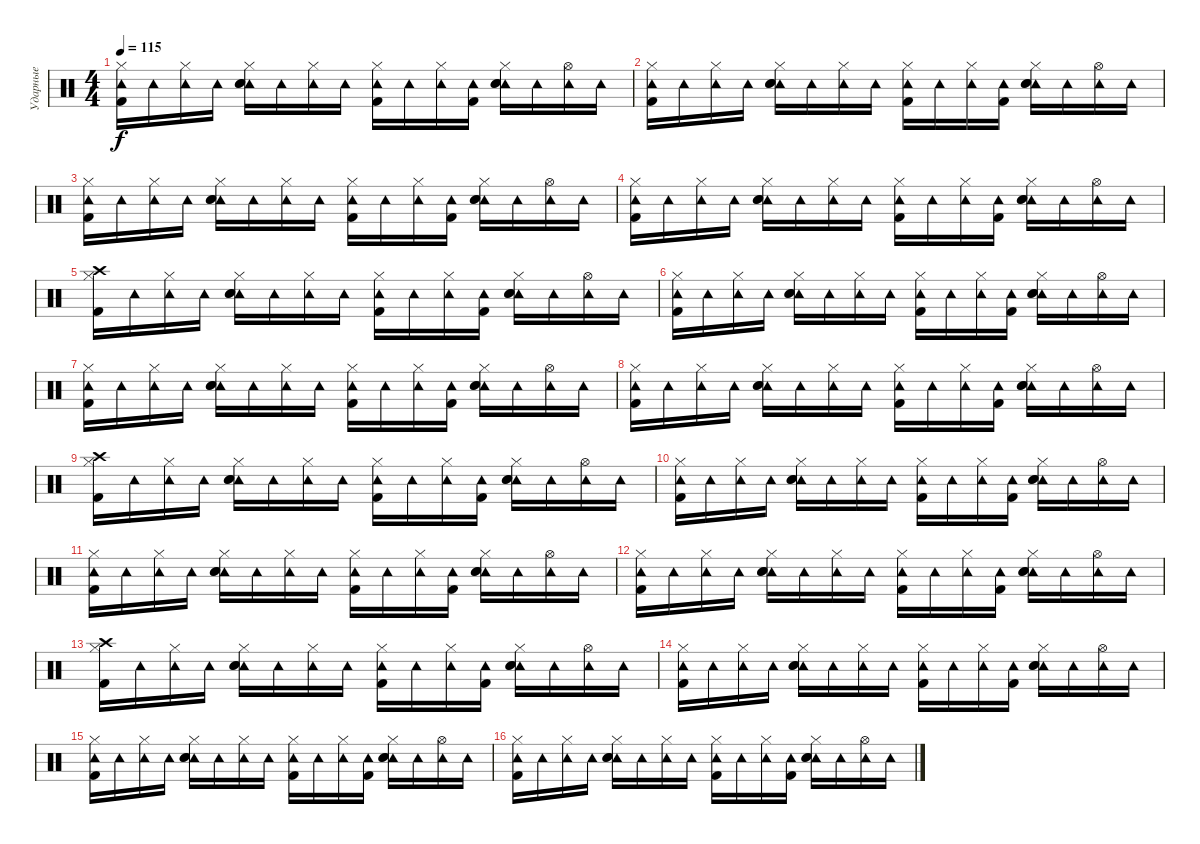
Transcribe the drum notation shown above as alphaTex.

\track ("Ударные" "Ударные") {instrument percussion}
\staff {score}
\articulation defaults
\ts (4 4)
\tempo 115
\clef neutral
\ks c
("Tambourine (hit)" "Hi-Hat (closed)" "Kick (hit) 2").16{dy f} "Tambourine (hit)".16 ("Tambourine (hit)" "Hi-Hat (closed)").16 "Tambourine (hit)".16 ("Tambourine (hit)" "Hi-Hat (closed)" "Electric Snare (hit)" "Snare (hit) 2").16 "Tambourine (hit)".16 ("Tambourine (hit)" "Hi-Hat (closed)").16 "Tambourine (hit)".16 ("Tambourine (hit)" "Hi-Hat (closed)" "Kick (hit) 2").16 "Tambourine (hit)".16 ("Tambourine (hit)" "Hi-Hat (closed)").16 ("Tambourine (hit)" "Kick (hit) 2").16 ("Tambourine (hit)" "Hi-Hat (closed)" "Electric Snare (hit)" "Snare (hit) 2").16 "Tambourine (hit)".16 ("Tambourine (hit)" "Hi-Hat (open)").16 "Tambourine (hit)".16 |
("Tambourine (hit)" "Hi-Hat (closed)" "Kick (hit) 2").16 "Tambourine (hit)".16 ("Tambourine (hit)" "Hi-Hat (closed)").16 "Tambourine (hit)".16 ("Tambourine (hit)" "Hi-Hat (closed)" "Electric Snare (hit)" "Snare (hit) 2").16 "Tambourine (hit)".16 ("Tambourine (hit)" "Hi-Hat (closed)").16 "Tambourine (hit)".16 ("Tambourine (hit)" "Hi-Hat (closed)" "Kick (hit) 2").16 "Tambourine (hit)".16 ("Tambourine (hit)" "Hi-Hat (closed)").16 ("Tambourine (hit)" "Kick (hit) 2").16 ("Tambourine (hit)" "Hi-Hat (closed)" "Electric Snare (hit)" "Snare (hit) 2").16 "Tambourine (hit)".16 ("Tambourine (hit)" "Hi-Hat (open)").16 "Tambourine (hit)".16 |
("Tambourine (hit)" "Hi-Hat (closed)" "Kick (hit) 2").16 "Tambourine (hit)".16 ("Tambourine (hit)" "Hi-Hat (closed)").16 "Tambourine (hit)".16 ("Tambourine (hit)" "Hi-Hat (closed)" "Electric Snare (hit)" "Snare (hit) 2").16 "Tambourine (hit)".16 ("Tambourine (hit)" "Hi-Hat (closed)").16 "Tambourine (hit)".16 ("Tambourine (hit)" "Hi-Hat (closed)" "Kick (hit) 2").16 "Tambourine (hit)".16 ("Tambourine (hit)" "Hi-Hat (closed)").16 ("Tambourine (hit)" "Kick (hit) 2").16 ("Tambourine (hit)" "Hi-Hat (closed)" "Electric Snare (hit)" "Snare (hit) 2").16 "Tambourine (hit)".16 ("Tambourine (hit)" "Hi-Hat (open)").16 "Tambourine (hit)".16 |
("Tambourine (hit)" "Hi-Hat (closed)" "Kick (hit) 2").16 "Tambourine (hit)".16 ("Tambourine (hit)" "Hi-Hat (closed)").16 "Tambourine (hit)".16 ("Tambourine (hit)" "Hi-Hat (closed)" "Electric Snare (hit)" "Snare (hit) 2").16 "Tambourine (hit)".16 ("Tambourine (hit)" "Hi-Hat (closed)").16 "Tambourine (hit)".16 ("Tambourine (hit)" "Hi-Hat (closed)" "Kick (hit) 2").16 "Tambourine (hit)".16 ("Tambourine (hit)" "Hi-Hat (closed)").16 ("Tambourine (hit)" "Kick (hit) 2").16 ("Tambourine (hit)" "Hi-Hat (closed)" "Electric Snare (hit)" "Snare (hit) 2").16 "Tambourine (hit)".16 ("Tambourine (hit)" "Hi-Hat (open)").16 "Tambourine (hit)".16 |
("Crash high (hit)" "Hi-Hat (closed)" "Kick (hit) 2").16 "Tambourine (hit)".16 ("Tambourine (hit)" "Hi-Hat (closed)").16 "Tambourine (hit)".16 ("Tambourine (hit)" "Hi-Hat (closed)" "Electric Snare (hit)" "Snare (hit) 2").16 "Tambourine (hit)".16 ("Tambourine (hit)" "Hi-Hat (closed)").16 "Tambourine (hit)".16 ("Tambourine (hit)" "Hi-Hat (closed)" "Kick (hit) 2").16 "Tambourine (hit)".16 ("Tambourine (hit)" "Hi-Hat (closed)").16 ("Tambourine (hit)" "Kick (hit) 2").16 ("Tambourine (hit)" "Hi-Hat (closed)" "Electric Snare (hit)" "Snare (hit) 2").16 "Tambourine (hit)".16 ("Tambourine (hit)" "Hi-Hat (open)").16 "Tambourine (hit)".16 |
("Tambourine (hit)" "Hi-Hat (closed)" "Kick (hit) 2").16 "Tambourine (hit)".16 ("Tambourine (hit)" "Hi-Hat (closed)").16 "Tambourine (hit)".16 ("Tambourine (hit)" "Hi-Hat (closed)" "Electric Snare (hit)" "Snare (hit) 2").16 "Tambourine (hit)".16 ("Tambourine (hit)" "Hi-Hat (closed)").16 "Tambourine (hit)".16 ("Tambourine (hit)" "Hi-Hat (closed)" "Kick (hit) 2").16 "Tambourine (hit)".16 ("Tambourine (hit)" "Hi-Hat (closed)").16 ("Tambourine (hit)" "Kick (hit) 2").16 ("Tambourine (hit)" "Hi-Hat (closed)" "Electric Snare (hit)" "Snare (hit) 2").16 "Tambourine (hit)".16 ("Tambourine (hit)" "Hi-Hat (open)").16 "Tambourine (hit)".16 |
("Tambourine (hit)" "Hi-Hat (closed)" "Kick (hit) 2").16 "Tambourine (hit)".16 ("Tambourine (hit)" "Hi-Hat (closed)").16 "Tambourine (hit)".16 ("Tambourine (hit)" "Hi-Hat (closed)" "Electric Snare (hit)" "Snare (hit) 2").16 "Tambourine (hit)".16 ("Tambourine (hit)" "Hi-Hat (closed)").16 "Tambourine (hit)".16 ("Tambourine (hit)" "Hi-Hat (closed)" "Kick (hit) 2").16 "Tambourine (hit)".16 ("Tambourine (hit)" "Hi-Hat (closed)").16 ("Tambourine (hit)" "Kick (hit) 2").16 ("Tambourine (hit)" "Hi-Hat (closed)" "Electric Snare (hit)" "Snare (hit) 2").16 "Tambourine (hit)".16 ("Tambourine (hit)" "Hi-Hat (open)").16 "Tambourine (hit)".16 |
("Tambourine (hit)" "Hi-Hat (closed)" "Kick (hit) 2").16 "Tambourine (hit)".16 ("Tambourine (hit)" "Hi-Hat (closed)").16 "Tambourine (hit)".16 ("Tambourine (hit)" "Hi-Hat (closed)" "Electric Snare (hit)" "Snare (hit) 2").16 "Tambourine (hit)".16 ("Tambourine (hit)" "Hi-Hat (closed)").16 "Tambourine (hit)".16 ("Tambourine (hit)" "Hi-Hat (closed)" "Kick (hit) 2").16 "Tambourine (hit)".16 ("Tambourine (hit)" "Hi-Hat (closed)").16 ("Tambourine (hit)" "Kick (hit) 2").16 ("Tambourine (hit)" "Hi-Hat (closed)" "Electric Snare (hit)" "Snare (hit) 2").16 "Tambourine (hit)".16 ("Tambourine (hit)" "Hi-Hat (open)").16 "Tambourine (hit)".16 |
("Crash high (hit)" "Hi-Hat (closed)" "Kick (hit) 2").16 "Tambourine (hit)".16 ("Tambourine (hit)" "Hi-Hat (closed)").16 "Tambourine (hit)".16 ("Tambourine (hit)" "Hi-Hat (closed)" "Electric Snare (hit)" "Snare (hit) 2").16 "Tambourine (hit)".16 ("Tambourine (hit)" "Hi-Hat (closed)").16 "Tambourine (hit)".16 ("Tambourine (hit)" "Hi-Hat (closed)" "Kick (hit) 2").16 "Tambourine (hit)".16 ("Tambourine (hit)" "Hi-Hat (closed)").16 ("Tambourine (hit)" "Kick (hit) 2").16 ("Tambourine (hit)" "Hi-Hat (closed)" "Electric Snare (hit)" "Snare (hit) 2").16 "Tambourine (hit)".16 ("Tambourine (hit)" "Hi-Hat (open)").16 "Tambourine (hit)".16 |
("Tambourine (hit)" "Hi-Hat (closed)" "Kick (hit) 2").16 "Tambourine (hit)".16 ("Tambourine (hit)" "Hi-Hat (closed)").16 "Tambourine (hit)".16 ("Tambourine (hit)" "Hi-Hat (closed)" "Electric Snare (hit)" "Snare (hit) 2").16 "Tambourine (hit)".16 ("Tambourine (hit)" "Hi-Hat (closed)").16 "Tambourine (hit)".16 ("Tambourine (hit)" "Hi-Hat (closed)" "Kick (hit) 2").16 "Tambourine (hit)".16 ("Tambourine (hit)" "Hi-Hat (closed)").16 ("Tambourine (hit)" "Kick (hit) 2").16 ("Tambourine (hit)" "Hi-Hat (closed)" "Electric Snare (hit)" "Snare (hit) 2").16 "Tambourine (hit)".16 ("Tambourine (hit)" "Hi-Hat (open)").16 "Tambourine (hit)".16 |
("Tambourine (hit)" "Hi-Hat (closed)" "Kick (hit) 2").16 "Tambourine (hit)".16 ("Tambourine (hit)" "Hi-Hat (closed)").16 "Tambourine (hit)".16 ("Tambourine (hit)" "Hi-Hat (closed)" "Electric Snare (hit)" "Snare (hit) 2").16 "Tambourine (hit)".16 ("Tambourine (hit)" "Hi-Hat (closed)").16 "Tambourine (hit)".16 ("Tambourine (hit)" "Hi-Hat (closed)" "Kick (hit) 2").16 "Tambourine (hit)".16 ("Tambourine (hit)" "Hi-Hat (closed)").16 ("Tambourine (hit)" "Kick (hit) 2").16 ("Tambourine (hit)" "Hi-Hat (closed)" "Electric Snare (hit)" "Snare (hit) 2").16 "Tambourine (hit)".16 ("Tambourine (hit)" "Hi-Hat (open)").16 "Tambourine (hit)".16 |
("Tambourine (hit)" "Hi-Hat (closed)" "Kick (hit) 2").16 "Tambourine (hit)".16 ("Tambourine (hit)" "Hi-Hat (closed)").16 "Tambourine (hit)".16 ("Tambourine (hit)" "Hi-Hat (closed)" "Electric Snare (hit)" "Snare (hit) 2").16 "Tambourine (hit)".16 ("Tambourine (hit)" "Hi-Hat (closed)").16 "Tambourine (hit)".16 ("Tambourine (hit)" "Hi-Hat (closed)" "Kick (hit) 2").16 "Tambourine (hit)".16 ("Tambourine (hit)" "Hi-Hat (closed)").16 ("Tambourine (hit)" "Kick (hit) 2").16 ("Tambourine (hit)" "Hi-Hat (closed)" "Electric Snare (hit)" "Snare (hit) 2").16 "Tambourine (hit)".16 ("Tambourine (hit)" "Hi-Hat (open)").16 "Tambourine (hit)".16 |
("Crash high (hit)" "Hi-Hat (closed)" "Kick (hit) 2").16 "Tambourine (hit)".16 ("Tambourine (hit)" "Hi-Hat (closed)").16 "Tambourine (hit)".16 ("Tambourine (hit)" "Hi-Hat (closed)" "Electric Snare (hit)" "Snare (hit) 2").16 "Tambourine (hit)".16 ("Tambourine (hit)" "Hi-Hat (closed)").16 "Tambourine (hit)".16 ("Tambourine (hit)" "Hi-Hat (closed)" "Kick (hit) 2").16 "Tambourine (hit)".16 ("Tambourine (hit)" "Hi-Hat (closed)").16 ("Tambourine (hit)" "Kick (hit) 2").16 ("Tambourine (hit)" "Hi-Hat (closed)" "Electric Snare (hit)" "Snare (hit) 2").16 "Tambourine (hit)".16 ("Tambourine (hit)" "Hi-Hat (open)").16 "Tambourine (hit)".16 |
("Tambourine (hit)" "Hi-Hat (closed)" "Kick (hit) 2").16 "Tambourine (hit)".16 ("Tambourine (hit)" "Hi-Hat (closed)").16 "Tambourine (hit)".16 ("Tambourine (hit)" "Hi-Hat (closed)" "Electric Snare (hit)" "Snare (hit) 2").16 "Tambourine (hit)".16 ("Tambourine (hit)" "Hi-Hat (closed)").16 "Tambourine (hit)".16 ("Tambourine (hit)" "Hi-Hat (closed)" "Kick (hit) 2").16 "Tambourine (hit)".16 ("Tambourine (hit)" "Hi-Hat (closed)").16 ("Tambourine (hit)" "Kick (hit) 2").16 ("Tambourine (hit)" "Hi-Hat (closed)" "Electric Snare (hit)" "Snare (hit) 2").16 "Tambourine (hit)".16 ("Tambourine (hit)" "Hi-Hat (open)").16 "Tambourine (hit)".16 |
("Tambourine (hit)" "Hi-Hat (closed)" "Kick (hit) 2").16 "Tambourine (hit)".16 ("Tambourine (hit)" "Hi-Hat (closed)").16 "Tambourine (hit)".16 ("Tambourine (hit)" "Hi-Hat (closed)" "Electric Snare (hit)" "Snare (hit) 2").16 "Tambourine (hit)".16 ("Tambourine (hit)" "Hi-Hat (closed)").16 "Tambourine (hit)".16 ("Tambourine (hit)" "Hi-Hat (closed)" "Kick (hit) 2").16 "Tambourine (hit)".16 ("Tambourine (hit)" "Hi-Hat (closed)").16 ("Tambourine (hit)" "Kick (hit) 2").16 ("Tambourine (hit)" "Hi-Hat (closed)" "Electric Snare (hit)" "Snare (hit) 2").16 "Tambourine (hit)".16 ("Tambourine (hit)" "Hi-Hat (open)").16 "Tambourine (hit)".16 |
("Tambourine (hit)" "Hi-Hat (closed)" "Kick (hit) 2").16 "Tambourine (hit)".16 ("Tambourine (hit)" "Hi-Hat (closed)").16 "Tambourine (hit)".16 ("Tambourine (hit)" "Hi-Hat (closed)" "Electric Snare (hit)" "Snare (hit) 2").16 "Tambourine (hit)".16 ("Tambourine (hit)" "Hi-Hat (closed)").16 "Tambourine (hit)".16 ("Tambourine (hit)" "Hi-Hat (closed)" "Kick (hit) 2").16 "Tambourine (hit)".16 ("Tambourine (hit)" "Hi-Hat (closed)").16 ("Tambourine (hit)" "Kick (hit) 2").16 ("Tambourine (hit)" "Hi-Hat (closed)" "Electric Snare (hit)" "Snare (hit) 2").16 "Tambourine (hit)".16 ("Tambourine (hit)" "Hi-Hat (open)").16 "Tambourine (hit)".16
